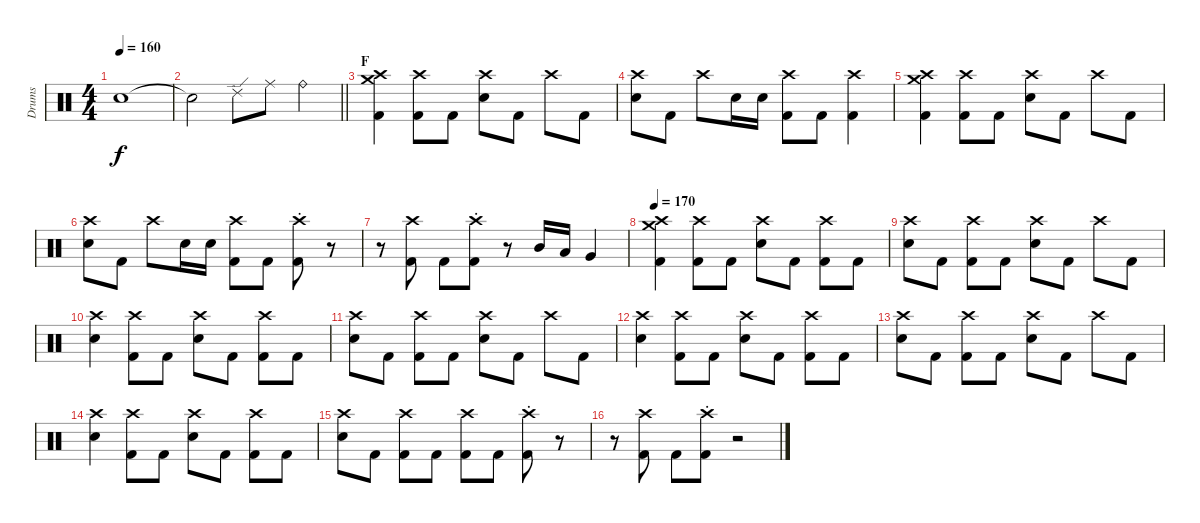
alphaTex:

\track ("Drums" "Drums") {instrument percussion}
\staff {score}
\articulation defaults
\ts (4 4)
\tempo 160
\clef neutral
\ks c "Snare (hit)"{t}.1{dy f}
|
\barLineRight lightlight "Snare (hit)"{t}.2 "Ride (edge) 2".8 "Ride (middle)".8 "Ride (bell)".4
|
\section ("" "F")
("Crash medium (hit)" "Crash high (hit)" "Kick (hit) 2").4 ("Crash high (hit)" "Kick (hit) 2").8 "Kick (hit) 2".8 ("Crash high (hit)" "Electric Snare (hit)").8 "Kick (hit) 2".8 "Crash high (hit)".8 "Kick (hit) 2".8 |
("Crash high (hit)" "Electric Snare (hit)").8 "Kick (hit) 2".8 "Crash high (hit)".8 "Electric Snare (hit)".16 "Electric Snare (hit)".16 ("Crash high (hit)" "Kick (hit) 2").8 "Kick (hit) 2".8 ("Crash high (hit)" "Kick (hit) 2").4 |
("Crash medium (hit)" "Crash high (hit)" "Kick (hit) 2").4 ("Crash high (hit)" "Kick (hit) 2").8 "Kick (hit) 2".8 ("Crash high (hit)" "Electric Snare (hit)").8 "Kick (hit) 2".8 "Crash high (hit)".8 "Kick (hit) 2".8 |
("Crash high (hit)" "Electric Snare (hit)").8 "Kick (hit) 2".8 "Crash high (hit)".8 "Electric Snare (hit)".16 "Electric Snare (hit)".16 ("Crash high (hit)" "Kick (hit) 2").8 "Kick (hit) 2".8 ("Crash high (hit)"{st} "Kick (hit) 2").8 r.8{volume 0} |
r.8 ("Crash high (hit)" "Kick (hit) 2").8{volume 14} "Kick (hit) 2".8 ("Crash high (hit)"{st} "Kick (hit) 2").8 r.8{volume 0} "Mid Tom (hit)".16{volume 14} "Low Tom (hit)".16 "Very Low Tom (hit)".4 |
\tempo 170
("Crash medium (hit)" "Crash high (hit)" "Kick (hit) 2").4 ("Crash high (hit)" "Kick (hit) 2").8 "Kick (hit) 2".8 ("Crash high (hit)" "Electric Snare (hit)").8 "Kick (hit) 2".8 ("Crash high (hit)" "Kick (hit) 2").8 "Kick (hit) 2".8 |
("Crash high (hit)" "Electric Snare (hit)").8 "Kick (hit) 2".8 ("Crash high (hit)" "Kick (hit) 2").8 "Kick (hit) 2".8 ("Crash high (hit)" "Electric Snare (hit)").8 "Kick (hit) 2".8 "Crash high (hit)".8 "Kick (hit) 2".8 |
("Crash high (hit)" "Electric Snare (hit)").4 ("Crash high (hit)" "Kick (hit) 2").8 "Kick (hit) 2".8 ("Crash high (hit)" "Electric Snare (hit)").8 "Kick (hit) 2".8 ("Crash high (hit)" "Kick (hit) 2").8 "Kick (hit) 2".8 |
("Crash high (hit)" "Electric Snare (hit)").8 "Kick (hit) 2".8 ("Crash high (hit)" "Kick (hit) 2").8 "Kick (hit) 2".8 ("Crash high (hit)" "Electric Snare (hit)").8 "Kick (hit) 2".8 "Crash high (hit)".8 "Kick (hit) 2".8 |
("Crash high (hit)" "Electric Snare (hit)").4 ("Crash high (hit)" "Kick (hit) 2").8 "Kick (hit) 2".8 ("Crash high (hit)" "Electric Snare (hit)").8 "Kick (hit) 2".8 ("Crash high (hit)" "Kick (hit) 2").8 "Kick (hit) 2".8 |
("Crash high (hit)" "Electric Snare (hit)").8 "Kick (hit) 2".8 ("Crash high (hit)" "Kick (hit) 2").8 "Kick (hit) 2".8 ("Crash high (hit)" "Electric Snare (hit)").8 "Kick (hit) 2".8 "Crash high (hit)".8 "Kick (hit) 2".8 |
("Crash high (hit)" "Electric Snare (hit)").4 ("Crash high (hit)" "Kick (hit) 2").8 "Kick (hit) 2".8 ("Crash high (hit)" "Electric Snare (hit)").8 "Kick (hit) 2".8 ("Crash high (hit)" "Kick (hit) 2").8 "Kick (hit) 2".8 |
("Crash high (hit)" "Electric Snare (hit)").8 "Kick (hit) 2".8 ("Crash high (hit)" "Kick (hit) 2").8 "Kick (hit) 2".8 ("Crash high (hit)" "Kick (hit) 2").8 "Kick (hit) 2".8 ("Crash high (hit)"{st} "Kick (hit) 2").8 r.8{volume 0} |
r.8 ("Crash high (hit)" "Kick (hit) 2").8{volume 14} "Kick (hit) 2".8 ("Crash high (hit)"{st} "Kick (hit) 2").8 r.2{volume 0}
